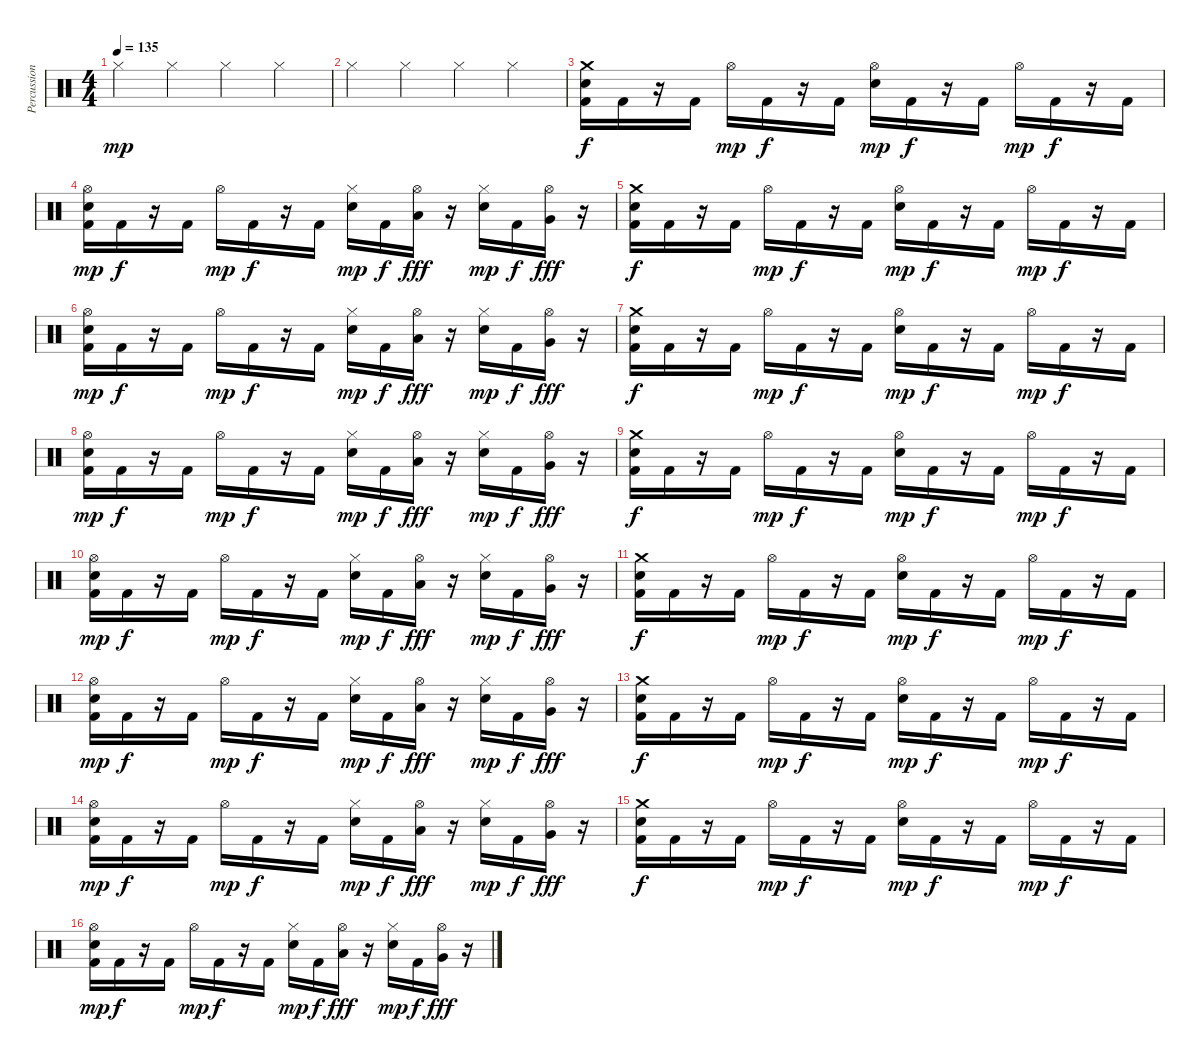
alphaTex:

\track ("Percussions" "Percussion") {instrument percussion}
\staff {score}
\articulation defaults
\ts (4 4)
\tempo 135
\clef neutral
\ks c "Hi-Hat (closed)".4{dy mp} "Hi-Hat (closed)".4 "Hi-Hat (closed)".4 "Hi-Hat (closed)".4
|
"Hi-Hat (closed)".4 "Hi-Hat (closed)".4 "Hi-Hat (closed)".4 "Hi-Hat (closed)".4 |
("Crash medium (hit)" "Electric Snare (hit)" "Kick (hit) 2").16{dy f} "Kick (hit) 2".16 r.16 "Kick (hit) 2".16 "Hi-Hat (open)".16{dy mp} "Kick (hit) 2".16{dy f} r.16 "Kick (hit) 2".16 ("Hi-Hat (open)" "Electric Snare (hit)").16{dy mp} "Kick (hit) 2".16{dy f} r.16 "Kick (hit) 2".16 "Hi-Hat (open)".16{dy mp} "Kick (hit) 2".16{dy f} r.16 "Kick (hit) 2".16 |
("Hi-Hat (open)" "Electric Snare (hit)" "Kick (hit) 2").16{dy mp} "Kick (hit) 2".16{dy f} r.16 "Kick (hit) 2".16 "Hi-Hat (open)".16{dy mp} "Kick (hit) 2".16{dy f} r.16 "Kick (hit) 2".16 ("Hi-Hat (closed)" "Electric Snare (hit)").16{dy mp} "Kick (hit) 2".16{dy f} ("Hi-Hat (open)" "Low Tom (hit)").16{dy fff} r.16 ("Hi-Hat (closed)" "Electric Snare (hit)").16{dy mp} "Kick (hit) 2".16{dy f} ("Hi-Hat (open)" "Very Low Tom (hit)").16{dy fff} r.16 |
("Crash medium (hit)" "Electric Snare (hit)" "Kick (hit) 2").16{dy f} "Kick (hit) 2".16 r.16 "Kick (hit) 2".16 "Hi-Hat (open)".16{dy mp} "Kick (hit) 2".16{dy f} r.16 "Kick (hit) 2".16 ("Hi-Hat (open)" "Electric Snare (hit)").16{dy mp} "Kick (hit) 2".16{dy f} r.16 "Kick (hit) 2".16 "Hi-Hat (open)".16{dy mp} "Kick (hit) 2".16{dy f} r.16 "Kick (hit) 2".16 |
("Hi-Hat (open)" "Electric Snare (hit)" "Kick (hit) 2").16{dy mp} "Kick (hit) 2".16{dy f} r.16 "Kick (hit) 2".16 "Hi-Hat (open)".16{dy mp} "Kick (hit) 2".16{dy f} r.16 "Kick (hit) 2".16 ("Hi-Hat (closed)" "Electric Snare (hit)").16{dy mp} "Kick (hit) 2".16{dy f} ("Hi-Hat (open)" "Low Tom (hit)").16{dy fff} r.16 ("Hi-Hat (closed)" "Electric Snare (hit)").16{dy mp} "Kick (hit) 2".16{dy f} ("Hi-Hat (open)" "Very Low Tom (hit)").16{dy fff} r.16 |
("Crash medium (hit)" "Electric Snare (hit)" "Kick (hit) 2").16{dy f} "Kick (hit) 2".16 r.16 "Kick (hit) 2".16 "Hi-Hat (open)".16{dy mp} "Kick (hit) 2".16{dy f} r.16 "Kick (hit) 2".16 ("Hi-Hat (open)" "Electric Snare (hit)").16{dy mp} "Kick (hit) 2".16{dy f} r.16 "Kick (hit) 2".16 "Hi-Hat (open)".16{dy mp} "Kick (hit) 2".16{dy f} r.16 "Kick (hit) 2".16 |
("Hi-Hat (open)" "Electric Snare (hit)" "Kick (hit) 2").16{dy mp} "Kick (hit) 2".16{dy f} r.16 "Kick (hit) 2".16 "Hi-Hat (open)".16{dy mp} "Kick (hit) 2".16{dy f} r.16 "Kick (hit) 2".16 ("Hi-Hat (closed)" "Electric Snare (hit)").16{dy mp} "Kick (hit) 2".16{dy f} ("Hi-Hat (open)" "Low Tom (hit)").16{dy fff} r.16 ("Hi-Hat (closed)" "Electric Snare (hit)").16{dy mp} "Kick (hit) 2".16{dy f} ("Hi-Hat (open)" "Very Low Tom (hit)").16{dy fff} r.16 |
("Crash medium (hit)" "Electric Snare (hit)" "Kick (hit) 2").16{dy f} "Kick (hit) 2".16 r.16 "Kick (hit) 2".16 "Hi-Hat (open)".16{dy mp} "Kick (hit) 2".16{dy f} r.16 "Kick (hit) 2".16 ("Hi-Hat (open)" "Electric Snare (hit)").16{dy mp} "Kick (hit) 2".16{dy f} r.16 "Kick (hit) 2".16 "Hi-Hat (open)".16{dy mp} "Kick (hit) 2".16{dy f} r.16 "Kick (hit) 2".16 |
("Hi-Hat (open)" "Electric Snare (hit)" "Kick (hit) 2").16{dy mp} "Kick (hit) 2".16{dy f} r.16 "Kick (hit) 2".16 "Hi-Hat (open)".16{dy mp} "Kick (hit) 2".16{dy f} r.16 "Kick (hit) 2".16 ("Hi-Hat (closed)" "Electric Snare (hit)").16{dy mp} "Kick (hit) 2".16{dy f} ("Hi-Hat (open)" "Low Tom (hit)").16{dy fff} r.16 ("Hi-Hat (closed)" "Electric Snare (hit)").16{dy mp} "Kick (hit) 2".16{dy f} ("Hi-Hat (open)" "Very Low Tom (hit)").16{dy fff} r.16 |
("Crash medium (hit)" "Electric Snare (hit)" "Kick (hit) 2").16{dy f} "Kick (hit) 2".16 r.16 "Kick (hit) 2".16 "Hi-Hat (open)".16{dy mp} "Kick (hit) 2".16{dy f} r.16 "Kick (hit) 2".16 ("Hi-Hat (open)" "Electric Snare (hit)").16{dy mp} "Kick (hit) 2".16{dy f} r.16 "Kick (hit) 2".16 "Hi-Hat (open)".16{dy mp} "Kick (hit) 2".16{dy f} r.16 "Kick (hit) 2".16 |
("Hi-Hat (open)" "Electric Snare (hit)" "Kick (hit) 2").16{dy mp} "Kick (hit) 2".16{dy f} r.16 "Kick (hit) 2".16 "Hi-Hat (open)".16{dy mp} "Kick (hit) 2".16{dy f} r.16 "Kick (hit) 2".16 ("Hi-Hat (closed)" "Electric Snare (hit)").16{dy mp} "Kick (hit) 2".16{dy f} ("Hi-Hat (open)" "Low Tom (hit)").16{dy fff} r.16 ("Hi-Hat (closed)" "Electric Snare (hit)").16{dy mp} "Kick (hit) 2".16{dy f} ("Hi-Hat (open)" "Very Low Tom (hit)").16{dy fff} r.16 |
("Crash medium (hit)" "Electric Snare (hit)" "Kick (hit) 2").16{dy f} "Kick (hit) 2".16 r.16 "Kick (hit) 2".16 "Hi-Hat (open)".16{dy mp} "Kick (hit) 2".16{dy f} r.16 "Kick (hit) 2".16 ("Hi-Hat (open)" "Electric Snare (hit)").16{dy mp} "Kick (hit) 2".16{dy f} r.16 "Kick (hit) 2".16 "Hi-Hat (open)".16{dy mp} "Kick (hit) 2".16{dy f} r.16 "Kick (hit) 2".16 |
("Hi-Hat (open)" "Electric Snare (hit)" "Kick (hit) 2").16{dy mp} "Kick (hit) 2".16{dy f} r.16 "Kick (hit) 2".16 "Hi-Hat (open)".16{dy mp} "Kick (hit) 2".16{dy f} r.16 "Kick (hit) 2".16 ("Hi-Hat (closed)" "Electric Snare (hit)").16{dy mp} "Kick (hit) 2".16{dy f} ("Hi-Hat (open)" "Low Tom (hit)").16{dy fff} r.16 ("Hi-Hat (closed)" "Electric Snare (hit)").16{dy mp} "Kick (hit) 2".16{dy f} ("Hi-Hat (open)" "Very Low Tom (hit)").16{dy fff} r.16 |
("Crash medium (hit)" "Electric Snare (hit)" "Kick (hit) 2").16{dy f} "Kick (hit) 2".16 r.16 "Kick (hit) 2".16 "Hi-Hat (open)".16{dy mp} "Kick (hit) 2".16{dy f} r.16 "Kick (hit) 2".16 ("Hi-Hat (open)" "Electric Snare (hit)").16{dy mp} "Kick (hit) 2".16{dy f} r.16 "Kick (hit) 2".16 "Hi-Hat (open)".16{dy mp} "Kick (hit) 2".16{dy f} r.16 "Kick (hit) 2".16 |
("Hi-Hat (open)" "Electric Snare (hit)" "Kick (hit) 2").16{dy mp} "Kick (hit) 2".16{dy f} r.16 "Kick (hit) 2".16 "Hi-Hat (open)".16{dy mp} "Kick (hit) 2".16{dy f} r.16 "Kick (hit) 2".16 ("Hi-Hat (closed)" "Electric Snare (hit)").16{dy mp} "Kick (hit) 2".16{dy f} ("Hi-Hat (open)" "Low Tom (hit)").16{dy fff} r.16 ("Hi-Hat (closed)" "Electric Snare (hit)").16{dy mp} "Kick (hit) 2".16{dy f} ("Hi-Hat (open)" "Very Low Tom (hit)").16{dy fff} r.16
